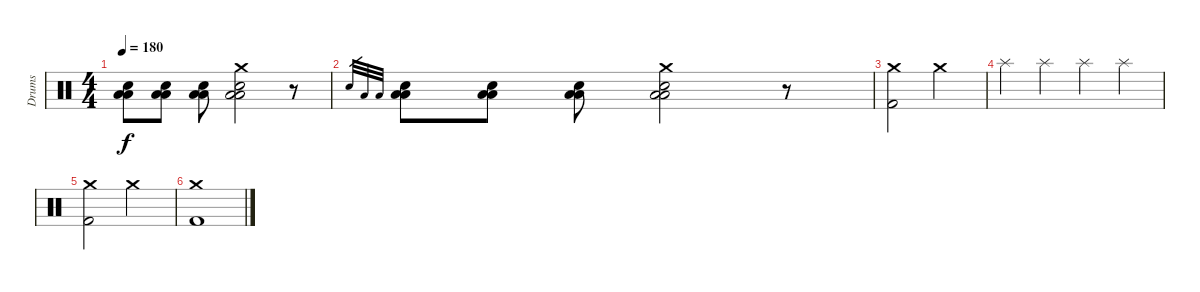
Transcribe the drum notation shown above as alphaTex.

\track ("Drums" "Drums") {instrument percussion}
\staff {score}
\articulation defaults
\ts (4 4)
\tempo 180
\clef neutral
\ks c
("Electric Snare (hit)" "Low Tom (hit)" "Low Tom (hit)").8{dy f} ("Electric Snare (hit)" "Low Tom (hit)" "Low Tom (hit)").8 ("Electric Snare (hit)" "Low Tom (hit)" "Low Tom (hit)").8 ("Crash medium (hit)" "Electric Snare (hit)" "Low Tom (hit)" "Low Tom (hit)").2 r.8 |
"Electric Snare (hit)".32{gr} "Low Tom (hit)".32{gr} "Low Tom (hit)".32{gr} ("Electric Snare (hit)" "Low Tom (hit)" "Low Tom (hit)").8 ("Electric Snare (hit)" "Low Tom (hit)" "Low Tom (hit)").8 ("Electric Snare (hit)" "Low Tom (hit)" "Low Tom (hit)").8 ("Crash medium (hit)" "Electric Snare (hit)" "Low Tom (hit)" "Low Tom (hit)").2 r.8 |
("Crash medium (hit)" "Kick (hit) 2").2 "Crash medium (hit)".2 |
"Splash (hit)".4 "Splash (hit)".4 "Splash (hit)".4 "Splash (hit)".4 |
("Crash medium (hit)" "Kick (hit) 2").2 "Crash medium (hit)".2 |
("Crash medium (hit)" "Kick (hit) 2").1
